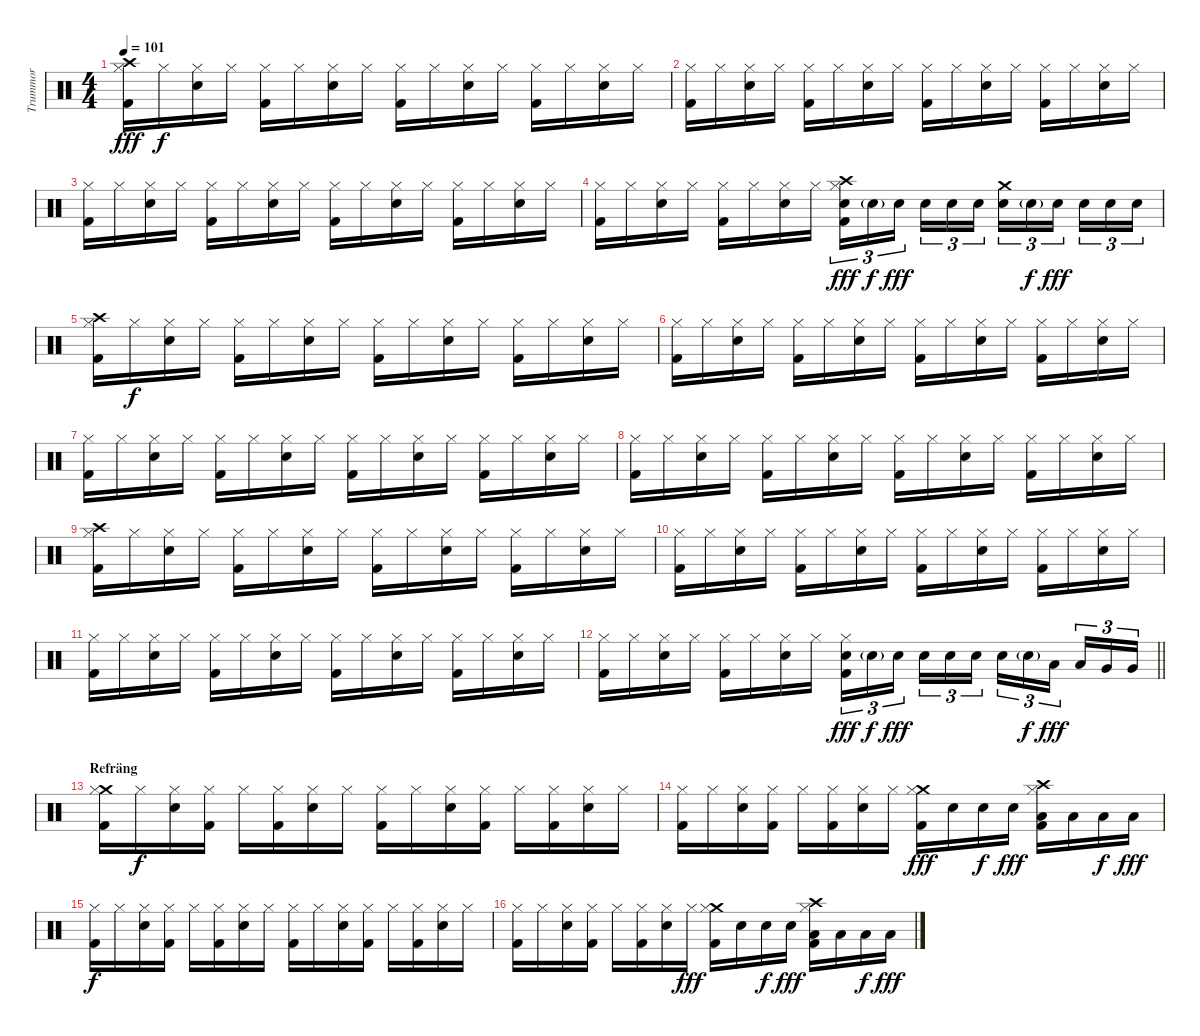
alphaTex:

\track ("Trummor" "Trummor") {instrument percussion}
\staff {score}
\articulation defaults
\ts (4 4)
\tempo 101
\clef neutral
\ks c
("Crash high (hit)" "Hi-Hat (closed)" "Kick (hit) 2").16{dy fff} "Hi-Hat (closed)".16{dy f} ("Hi-Hat (closed)" "Electric Snare (hit)").16 "Hi-Hat (closed)".16 ("Hi-Hat (closed)" "Kick (hit) 2").16 "Hi-Hat (closed)".16 ("Hi-Hat (closed)" "Electric Snare (hit)").16 "Hi-Hat (closed)".16 ("Hi-Hat (closed)" "Kick (hit) 2").16 "Hi-Hat (closed)".16 ("Hi-Hat (closed)" "Electric Snare (hit)").16 "Hi-Hat (closed)".16 ("Hi-Hat (closed)" "Kick (hit) 2").16 "Hi-Hat (closed)".16 ("Hi-Hat (closed)" "Electric Snare (hit)").16 "Hi-Hat (closed)".16 |
("Hi-Hat (closed)" "Kick (hit) 2").16 "Hi-Hat (closed)".16 ("Hi-Hat (closed)" "Electric Snare (hit)").16 "Hi-Hat (closed)".16 ("Hi-Hat (closed)" "Kick (hit) 2").16 "Hi-Hat (closed)".16 ("Hi-Hat (closed)" "Electric Snare (hit)").16 "Hi-Hat (closed)".16 ("Hi-Hat (closed)" "Kick (hit) 2").16 "Hi-Hat (closed)".16 ("Hi-Hat (closed)" "Electric Snare (hit)").16 "Hi-Hat (closed)".16 ("Hi-Hat (closed)" "Kick (hit) 2").16 "Hi-Hat (closed)".16 ("Hi-Hat (closed)" "Electric Snare (hit)").16 "Hi-Hat (closed)".16 |
("Hi-Hat (closed)" "Kick (hit) 2").16 "Hi-Hat (closed)".16 ("Hi-Hat (closed)" "Electric Snare (hit)").16 "Hi-Hat (closed)".16 ("Hi-Hat (closed)" "Kick (hit) 2").16 "Hi-Hat (closed)".16 ("Hi-Hat (closed)" "Electric Snare (hit)").16 "Hi-Hat (closed)".16 ("Hi-Hat (closed)" "Kick (hit) 2").16 "Hi-Hat (closed)".16 ("Hi-Hat (closed)" "Electric Snare (hit)").16 "Hi-Hat (closed)".16 ("Hi-Hat (closed)" "Kick (hit) 2").16 "Hi-Hat (closed)".16 ("Hi-Hat (closed)" "Electric Snare (hit)").16 "Hi-Hat (closed)".16 |
("Hi-Hat (closed)" "Kick (hit) 2").16 "Hi-Hat (closed)".16 ("Hi-Hat (closed)" "Electric Snare (hit)").16 "Hi-Hat (closed)".16 ("Hi-Hat (closed)" "Kick (hit) 2").16 "Hi-Hat (closed)".16 ("Hi-Hat (closed)" "Electric Snare (hit)").16 "Hi-Hat (closed)".16 ("Crash high (hit)" "Electric Snare (hit)" "Hi-Hat (closed)" "Kick (hit) 2").16{tu (3 2) dy fff} "Electric Snare (hit)"{g}.16{tu (3 2) dy f} "Electric Snare (hit)".16{tu (3 2) dy fff beam splitsecondary} "Electric Snare (hit)".16{tu (3 2)} "Electric Snare (hit)".16{tu (3 2)} "Electric Snare (hit)".16{tu (3 2)} ("Crash medium (hit)" "Snare (hit) 2").16{tu (3 2)} "Electric Snare (hit)"{g}.16{tu (3 2) dy f} "Electric Snare (hit)".16{tu (3 2) dy fff beam splitsecondary} "Electric Snare (hit)".16{tu (3 2)} "Electric Snare (hit)".16{tu (3 2)} "Electric Snare (hit)".16{tu (3 2)} |
("Crash high (hit)" "Hi-Hat (closed)" "Kick (hit) 2").16 "Hi-Hat (closed)".16{dy f} ("Hi-Hat (closed)" "Electric Snare (hit)").16 "Hi-Hat (closed)".16 ("Hi-Hat (closed)" "Kick (hit) 2").16 "Hi-Hat (closed)".16 ("Hi-Hat (closed)" "Electric Snare (hit)").16 "Hi-Hat (closed)".16 ("Hi-Hat (closed)" "Kick (hit) 2").16 "Hi-Hat (closed)".16 ("Hi-Hat (closed)" "Electric Snare (hit)").16 "Hi-Hat (closed)".16 ("Hi-Hat (closed)" "Kick (hit) 2").16 "Hi-Hat (closed)".16 ("Hi-Hat (closed)" "Electric Snare (hit)").16 "Hi-Hat (closed)".16 |
("Hi-Hat (closed)" "Kick (hit) 2").16 "Hi-Hat (closed)".16 ("Hi-Hat (closed)" "Electric Snare (hit)").16 "Hi-Hat (closed)".16 ("Hi-Hat (closed)" "Kick (hit) 2").16 "Hi-Hat (closed)".16 ("Hi-Hat (closed)" "Electric Snare (hit)").16 "Hi-Hat (closed)".16 ("Hi-Hat (closed)" "Kick (hit) 2").16 "Hi-Hat (closed)".16 ("Hi-Hat (closed)" "Electric Snare (hit)").16 "Hi-Hat (closed)".16 ("Hi-Hat (closed)" "Kick (hit) 2").16 "Hi-Hat (closed)".16 ("Hi-Hat (closed)" "Electric Snare (hit)").16 "Hi-Hat (closed)".16 |
("Hi-Hat (closed)" "Kick (hit) 2").16 "Hi-Hat (closed)".16 ("Hi-Hat (closed)" "Electric Snare (hit)").16 "Hi-Hat (closed)".16 ("Hi-Hat (closed)" "Kick (hit) 2").16 "Hi-Hat (closed)".16 ("Hi-Hat (closed)" "Electric Snare (hit)").16 "Hi-Hat (closed)".16 ("Hi-Hat (closed)" "Kick (hit) 2").16 "Hi-Hat (closed)".16 ("Hi-Hat (closed)" "Electric Snare (hit)").16 "Hi-Hat (closed)".16 ("Hi-Hat (closed)" "Kick (hit) 2").16 "Hi-Hat (closed)".16 ("Hi-Hat (closed)" "Electric Snare (hit)").16 "Hi-Hat (closed)".16 |
("Hi-Hat (closed)" "Kick (hit) 2").16 "Hi-Hat (closed)".16 ("Hi-Hat (closed)" "Electric Snare (hit)").16 "Hi-Hat (closed)".16 ("Hi-Hat (closed)" "Kick (hit) 2").16 "Hi-Hat (closed)".16 ("Hi-Hat (closed)" "Electric Snare (hit)").16 "Hi-Hat (closed)".16 ("Hi-Hat (closed)" "Kick (hit) 2").16 "Hi-Hat (closed)".16 ("Hi-Hat (closed)" "Electric Snare (hit)").16 "Hi-Hat (closed)".16 ("Hi-Hat (closed)" "Kick (hit) 2").16 "Hi-Hat (closed)".16 ("Hi-Hat (closed)" "Electric Snare (hit)").16 "Hi-Hat (closed)".16 |
("Crash high (hit)" "Hi-Hat (closed)" "Kick (hit) 2").16 "Hi-Hat (closed)".16 ("Hi-Hat (closed)" "Electric Snare (hit)").16 "Hi-Hat (closed)".16 ("Hi-Hat (closed)" "Kick (hit) 2").16 "Hi-Hat (closed)".16 ("Hi-Hat (closed)" "Electric Snare (hit)").16 "Hi-Hat (closed)".16 ("Hi-Hat (closed)" "Kick (hit) 2").16 "Hi-Hat (closed)".16 ("Hi-Hat (closed)" "Electric Snare (hit)").16 "Hi-Hat (closed)".16 ("Hi-Hat (closed)" "Kick (hit) 2").16 "Hi-Hat (closed)".16 ("Hi-Hat (closed)" "Electric Snare (hit)").16 "Hi-Hat (closed)".16 |
("Hi-Hat (closed)" "Kick (hit) 2").16 "Hi-Hat (closed)".16 ("Hi-Hat (closed)" "Electric Snare (hit)").16 "Hi-Hat (closed)".16 ("Hi-Hat (closed)" "Kick (hit) 2").16 "Hi-Hat (closed)".16 ("Hi-Hat (closed)" "Electric Snare (hit)").16 "Hi-Hat (closed)".16 ("Hi-Hat (closed)" "Kick (hit) 2").16 "Hi-Hat (closed)".16 ("Hi-Hat (closed)" "Electric Snare (hit)").16 "Hi-Hat (closed)".16 ("Hi-Hat (closed)" "Kick (hit) 2").16 "Hi-Hat (closed)".16 ("Hi-Hat (closed)" "Electric Snare (hit)").16 "Hi-Hat (closed)".16 |
("Hi-Hat (closed)" "Kick (hit) 2").16 "Hi-Hat (closed)".16 ("Hi-Hat (closed)" "Electric Snare (hit)").16 "Hi-Hat (closed)".16 ("Hi-Hat (closed)" "Kick (hit) 2").16 "Hi-Hat (closed)".16 ("Hi-Hat (closed)" "Electric Snare (hit)").16 "Hi-Hat (closed)".16 ("Hi-Hat (closed)" "Kick (hit) 2").16 "Hi-Hat (closed)".16 ("Hi-Hat (closed)" "Electric Snare (hit)").16 "Hi-Hat (closed)".16 ("Hi-Hat (closed)" "Kick (hit) 2").16 "Hi-Hat (closed)".16 ("Hi-Hat (closed)" "Electric Snare (hit)").16 "Hi-Hat (closed)".16 |
\barLineRight lightlight
("Hi-Hat (closed)" "Kick (hit) 2").16 "Hi-Hat (closed)".16 ("Hi-Hat (closed)" "Electric Snare (hit)").16 "Hi-Hat (closed)".16 ("Hi-Hat (closed)" "Kick (hit) 2").16 "Hi-Hat (closed)".16 ("Hi-Hat (closed)" "Electric Snare (hit)").16 "Hi-Hat (closed)".16 ("Electric Snare (hit)" "Hi-Hat (closed)" "Kick (hit) 2").16{tu (3 2) dy fff} "Electric Snare (hit)"{g}.16{tu (3 2) dy f} "Electric Snare (hit)".16{tu (3 2) dy fff beam splitsecondary} "Electric Snare (hit)".16{tu (3 2)} "Electric Snare (hit)".16{tu (3 2)} "Electric Snare (hit)".16{tu (3 2)} "Snare (hit) 2".16{tu (3 2)} "Electric Snare (hit)"{g}.16{tu (3 2) dy f} "Low Tom (hit)".16{tu (3 2) dy fff beam splitsecondary} "Low Tom (hit)".16{tu (3 2)} "Very Low Tom (hit)".16{tu (3 2)} "Very Low Tom (hit)".16{tu (3 2)} |
\section ("" "Refräng")
("Crash medium (hit)" "Hi-Hat (closed)" "Kick (hit) 2").16 "Hi-Hat (closed)".16{dy f} ("Hi-Hat (closed)" "Electric Snare (hit)").16 ("Hi-Hat (closed)" "Kick (hit) 2").16 "Hi-Hat (closed)".16 ("Hi-Hat (closed)" "Kick (hit) 2").16 ("Hi-Hat (closed)" "Electric Snare (hit)").16 "Hi-Hat (closed)".16 ("Hi-Hat (closed)" "Kick (hit) 2").16 "Hi-Hat (closed)".16 ("Hi-Hat (closed)" "Electric Snare (hit)").16 ("Hi-Hat (closed)" "Kick (hit) 2").16 "Hi-Hat (closed)".16 ("Hi-Hat (closed)" "Kick (hit) 2").16 ("Hi-Hat (closed)" "Electric Snare (hit)").16 "Hi-Hat (closed)".16 |
("Hi-Hat (closed)" "Kick (hit) 2").16 "Hi-Hat (closed)".16 ("Hi-Hat (closed)" "Electric Snare (hit)").16 ("Hi-Hat (closed)" "Kick (hit) 2").16 "Hi-Hat (closed)".16 ("Hi-Hat (closed)" "Kick (hit) 2").16 ("Hi-Hat (closed)" "Electric Snare (hit)").16 "Hi-Hat (closed)".16 ("Crash medium (hit)" "Hi-Hat (closed)" "Kick (hit) 2").16{dy fff} "Electric Snare (hit)".16 "Electric Snare (hit)".16{dy f} "Electric Snare (hit)".16{dy fff} ("Crash high (hit)" "Hi-Hat (closed)" "Low Tom (hit)" "Kick (hit) 2").16 "Low Tom (hit)".16 "Low Tom (hit)".16{dy f} "Low Tom (hit)".16{dy fff} |
("Hi-Hat (closed)" "Kick (hit) 2").16{dy f} "Hi-Hat (closed)".16 ("Hi-Hat (closed)" "Electric Snare (hit)").16 ("Hi-Hat (closed)" "Kick (hit) 2").16 "Hi-Hat (closed)".16 ("Hi-Hat (closed)" "Kick (hit) 2").16 ("Hi-Hat (closed)" "Electric Snare (hit)").16 "Hi-Hat (closed)".16 ("Hi-Hat (closed)" "Kick (hit) 2").16 "Hi-Hat (closed)".16 ("Hi-Hat (closed)" "Electric Snare (hit)").16 ("Hi-Hat (closed)" "Kick (hit) 2").16 "Hi-Hat (closed)".16 ("Hi-Hat (closed)" "Kick (hit) 2").16 ("Hi-Hat (closed)" "Electric Snare (hit)").16 "Hi-Hat (closed)".16 |
("Hi-Hat (closed)" "Kick (hit) 2").16 "Hi-Hat (closed)".16 ("Hi-Hat (closed)" "Electric Snare (hit)").16 ("Hi-Hat (closed)" "Kick (hit) 2").16 "Hi-Hat (closed)".16 ("Hi-Hat (closed)" "Kick (hit) 2").16 ("Hi-Hat (closed)" "Electric Snare (hit)").16 "Hi-Hat (closed)".16{dy fff} ("Crash medium (hit)" "Hi-Hat (closed)" "Kick (hit) 2").16 "Electric Snare (hit)".16 "Electric Snare (hit)".16{dy f} "Electric Snare (hit)".16{dy fff} ("Crash high (hit)" "Hi-Hat (closed)" "Low Tom (hit)" "Kick (hit) 2").16 "Low Tom (hit)".16 "Low Tom (hit)".16{dy f} "Low Tom (hit)".16{dy fff}
